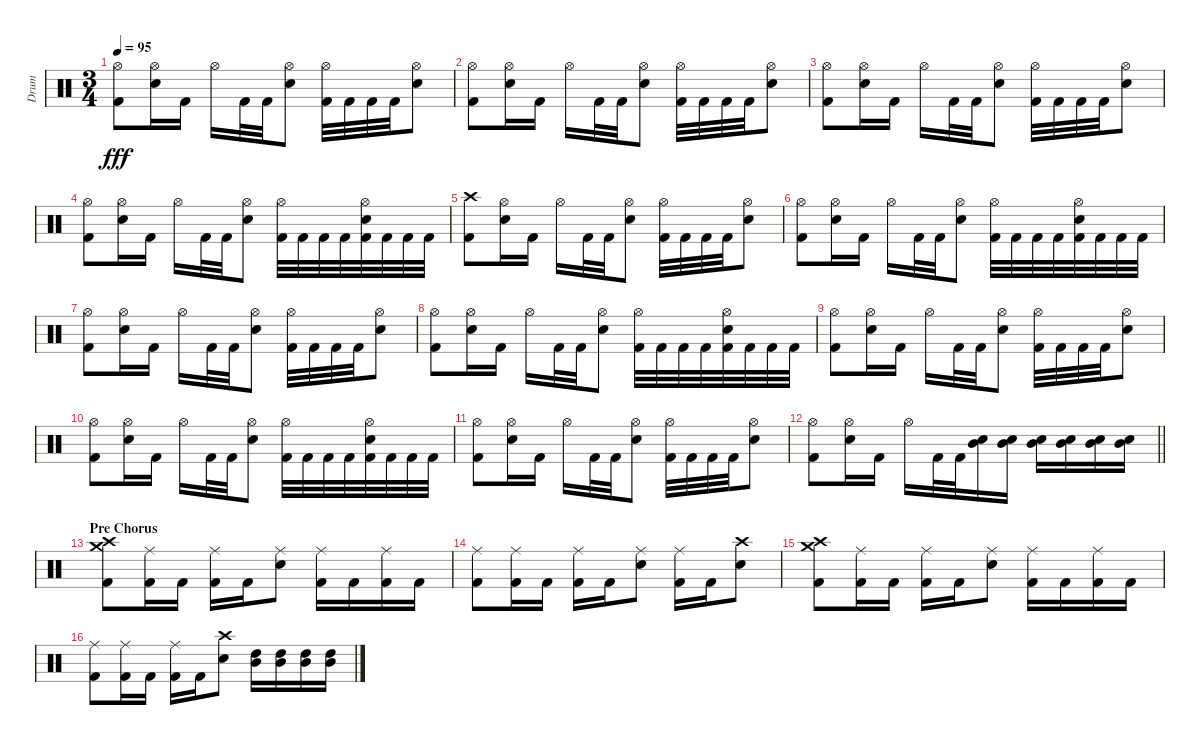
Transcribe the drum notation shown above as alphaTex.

\track ("Drum" "Drum") {instrument percussion}
\staff {score}
\articulation defaults
\ts (3 4)
\tempo 95
\clef neutral
\ks c
("Hi-Hat (open)" "Kick (hit) 2").8{dy fff} ("Hi-Hat (open)" "Electric Snare (hit)").16 "Kick (hit) 2".16 "Hi-Hat (open)".16 "Kick (hit) 2".32 "Kick (hit) 2".32 ("Hi-Hat (open)" "Electric Snare (hit)").8 ("Hi-Hat (open)" "Kick (hit) 2").32 "Kick (hit) 2".32 "Kick (hit) 2".32 "Kick (hit) 2".32 ("Hi-Hat (open)" "Electric Snare (hit)").8 |
("Hi-Hat (open)" "Kick (hit) 2").8 ("Hi-Hat (open)" "Electric Snare (hit)").16 "Kick (hit) 2".16 "Hi-Hat (open)".16 "Kick (hit) 2".32 "Kick (hit) 2".32 ("Hi-Hat (open)" "Electric Snare (hit)").8 ("Hi-Hat (open)" "Kick (hit) 2").32 "Kick (hit) 2".32 "Kick (hit) 2".32 "Kick (hit) 2".32 ("Hi-Hat (open)" "Electric Snare (hit)").8 |
("Hi-Hat (open)" "Kick (hit) 2").8 ("Hi-Hat (open)" "Electric Snare (hit)").16 "Kick (hit) 2".16 "Hi-Hat (open)".16 "Kick (hit) 2".32 "Kick (hit) 2".32 ("Hi-Hat (open)" "Electric Snare (hit)").8 ("Hi-Hat (open)" "Kick (hit) 2").32 "Kick (hit) 2".32 "Kick (hit) 2".32 "Kick (hit) 2".32 ("Hi-Hat (open)" "Electric Snare (hit)").8 |
("Hi-Hat (open)" "Kick (hit) 2").8 ("Hi-Hat (open)" "Electric Snare (hit)").16 "Kick (hit) 2".16 "Hi-Hat (open)".16 "Kick (hit) 2".32 "Kick (hit) 2".32 ("Hi-Hat (open)" "Electric Snare (hit)").8 ("Hi-Hat (open)" "Kick (hit) 2").32 "Kick (hit) 2".32 "Kick (hit) 2".32 "Kick (hit) 2".32 ("Hi-Hat (open)" "Electric Snare (hit)" "Kick (hit) 2").32 "Kick (hit) 2".32 "Kick (hit) 2".32 "Kick (hit) 2".32 |
("Crash high (hit)" "Kick (hit) 2").8 ("Hi-Hat (open)" "Electric Snare (hit)").16 "Kick (hit) 2".16 "Hi-Hat (open)".16 "Kick (hit) 2".32 "Kick (hit) 2".32 ("Hi-Hat (open)" "Electric Snare (hit)").8 ("Hi-Hat (open)" "Kick (hit) 2").32 "Kick (hit) 2".32 "Kick (hit) 2".32 "Kick (hit) 2".32 ("Hi-Hat (open)" "Electric Snare (hit)").8 |
("Hi-Hat (open)" "Kick (hit) 2").8 ("Hi-Hat (open)" "Electric Snare (hit)").16 "Kick (hit) 2".16 "Hi-Hat (open)".16 "Kick (hit) 2".32 "Kick (hit) 2".32 ("Hi-Hat (open)" "Electric Snare (hit)").8 ("Hi-Hat (open)" "Kick (hit) 2").32 "Kick (hit) 2".32 "Kick (hit) 2".32 "Kick (hit) 2".32 ("Hi-Hat (open)" "Electric Snare (hit)" "Kick (hit) 2").32 "Kick (hit) 2".32 "Kick (hit) 2".32 "Kick (hit) 2".32 |
("Hi-Hat (open)" "Kick (hit) 2").8 ("Hi-Hat (open)" "Electric Snare (hit)").16 "Kick (hit) 2".16 "Hi-Hat (open)".16 "Kick (hit) 2".32 "Kick (hit) 2".32 ("Hi-Hat (open)" "Electric Snare (hit)").8 ("Hi-Hat (open)" "Kick (hit) 2").32 "Kick (hit) 2".32 "Kick (hit) 2".32 "Kick (hit) 2".32 ("Hi-Hat (open)" "Electric Snare (hit)").8 |
("Hi-Hat (open)" "Kick (hit) 2").8 ("Hi-Hat (open)" "Electric Snare (hit)").16 "Kick (hit) 2".16 "Hi-Hat (open)".16 "Kick (hit) 2".32 "Kick (hit) 2".32 ("Hi-Hat (open)" "Electric Snare (hit)").8 ("Hi-Hat (open)" "Kick (hit) 2").32 "Kick (hit) 2".32 "Kick (hit) 2".32 "Kick (hit) 2".32 ("Hi-Hat (open)" "Electric Snare (hit)" "Kick (hit) 2").32 "Kick (hit) 2".32 "Kick (hit) 2".32 "Kick (hit) 2".32 |
("Hi-Hat (open)" "Kick (hit) 2").8 ("Hi-Hat (open)" "Electric Snare (hit)").16 "Kick (hit) 2".16 "Hi-Hat (open)".16 "Kick (hit) 2".32 "Kick (hit) 2".32 ("Hi-Hat (open)" "Electric Snare (hit)").8 ("Hi-Hat (open)" "Kick (hit) 2").32 "Kick (hit) 2".32 "Kick (hit) 2".32 "Kick (hit) 2".32 ("Hi-Hat (open)" "Electric Snare (hit)").8 |
("Hi-Hat (open)" "Kick (hit) 2").8 ("Hi-Hat (open)" "Electric Snare (hit)").16 "Kick (hit) 2".16 "Hi-Hat (open)".16 "Kick (hit) 2".32 "Kick (hit) 2".32 ("Hi-Hat (open)" "Electric Snare (hit)").8 ("Hi-Hat (open)" "Kick (hit) 2").32 "Kick (hit) 2".32 "Kick (hit) 2".32 "Kick (hit) 2".32 ("Hi-Hat (open)" "Electric Snare (hit)" "Kick (hit) 2").32 "Kick (hit) 2".32 "Kick (hit) 2".32 "Kick (hit) 2".32 |
("Hi-Hat (open)" "Kick (hit) 2").8 ("Hi-Hat (open)" "Electric Snare (hit)").16 "Kick (hit) 2".16 "Hi-Hat (open)".16 "Kick (hit) 2".32 "Kick (hit) 2".32 ("Hi-Hat (open)" "Electric Snare (hit)").8 ("Hi-Hat (open)" "Kick (hit) 2").32 "Kick (hit) 2".32 "Kick (hit) 2".32 "Kick (hit) 2".32 ("Hi-Hat (open)" "Electric Snare (hit)").8 |
\barLineRight lightlight
("Hi-Hat (open)" "Kick (hit) 2").8 ("Hi-Hat (open)" "Electric Snare (hit)").16 "Kick (hit) 2".16 "Hi-Hat (open)".16 "Kick (hit) 2".32 "Kick (hit) 2".32 ("Electric Snare (hit)" "Mid Tom (hit)").16 ("Electric Snare (hit)" "Mid Tom (hit)").16 ("Electric Snare (hit)" "Mid Tom (hit)").16 ("Electric Snare (hit)" "Mid Tom (hit)").16 ("Electric Snare (hit)" "Mid Tom (hit)").16 ("Electric Snare (hit)" "Mid Tom (hit)").16 |
\section ("" "Pre Chorus")
("Crash medium (hit)" "Crash high (hit)" "Kick (hit) 2").8 ("Ride (middle)" "Kick (hit) 2").16 "Kick (hit) 2".16 ("Ride (middle)" "Kick (hit) 2").16 "Kick (hit) 2".16 ("Ride (middle)" "Electric Snare (hit)").8 ("Ride (middle)" "Kick (hit) 2").16 "Kick (hit) 2".16 ("Ride (middle)" "Kick (hit) 2").16 "Kick (hit) 2".16 |
("Ride (middle)" "Kick (hit) 2").8 ("Ride (middle)" "Kick (hit) 2").16 "Kick (hit) 2".16 ("Ride (middle)" "Kick (hit) 2").16 "Kick (hit) 2".16 ("Ride (middle)" "Electric Snare (hit)").8 ("Ride (middle)" "Kick (hit) 2").16 "Kick (hit) 2".16 ("Crash high (hit)" "Electric Snare (hit)").8 |
("Crash medium (hit)" "Crash high (hit)" "Kick (hit) 2").8 ("Ride (middle)" "Kick (hit) 2").16 "Kick (hit) 2".16 ("Ride (middle)" "Kick (hit) 2").16 "Kick (hit) 2".16 ("Ride (middle)" "Electric Snare (hit)").8 ("Ride (middle)" "Kick (hit) 2").16 "Kick (hit) 2".16 ("Ride (middle)" "Kick (hit) 2").16 "Kick (hit) 2".16 |
("Ride (middle)" "Kick (hit) 2").8 ("Ride (middle)" "Kick (hit) 2").16 "Kick (hit) 2".16 ("Ride (middle)" "Kick (hit) 2").16 "Kick (hit) 2".16 ("Crash high (hit)" "Electric Snare (hit)").8 ("High Tom (hit)" "Mid Tom (hit)").16 ("High Tom (hit)" "Mid Tom (hit)").16 ("High Tom (hit)" "Mid Tom (hit)").16 ("High Tom (hit)" "Mid Tom (hit)").16
